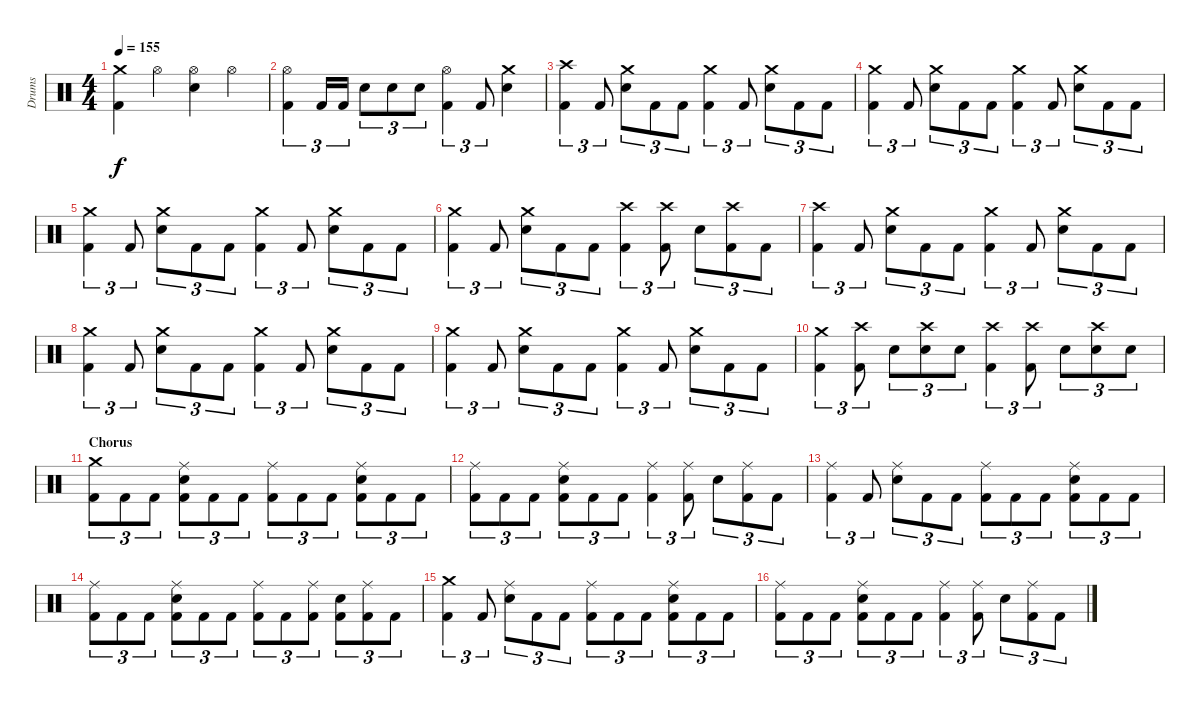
\track ("Drums" "Drums") {instrument percussion}
\staff {score}
\articulation defaults
\ts (4 4)
\tempo 155
\clef neutral
\ks c
("Kick (hit) 2" "Crash medium (hit)").4{dy f} "Hi-Hat (open)".4 ("Electric Snare (hit)" "Hi-Hat (open)").4 "Hi-Hat (open)".4 |
("Kick (hit) 2" "Hi-Hat (open)").4{tu (3 2)} "Kick (hit) 2".16{tu (3 2)} "Kick (hit) 2".16{tu (3 2)} "Electric Snare (hit)".8{tu (3 2)} "Electric Snare (hit)".8{tu (3 2)} "Electric Snare (hit)".8{tu (3 2)} ("Kick (hit) 2" "Hi-Hat (open)").4{tu (3 2)} "Kick (hit) 2".8{tu (3 2)} ("Electric Snare (hit)" "Crash medium (hit)").4 |
("Kick (hit) 2" "Crash high (hit)").4{tu (3 2)} "Kick (hit) 2".8{tu (3 2)} ("Electric Snare (hit)" "Crash medium (hit)").8{tu (3 2)} "Kick (hit) 2".8{tu (3 2)} "Kick (hit) 2".8{tu (3 2)} ("Kick (hit) 2" "Crash medium (hit)").4{tu (3 2)} "Kick (hit) 2".8{tu (3 2)} ("Electric Snare (hit)" "Crash medium (hit)").8{tu (3 2)} "Kick (hit) 2".8{tu (3 2)} "Kick (hit) 2".8{tu (3 2)} |
("Kick (hit) 2" "Crash medium (hit)").4{tu (3 2)} "Kick (hit) 2".8{tu (3 2)} ("Electric Snare (hit)" "Crash medium (hit)").8{tu (3 2)} "Kick (hit) 2".8{tu (3 2)} "Kick (hit) 2".8{tu (3 2)} ("Kick (hit) 2" "Crash medium (hit)").4{tu (3 2)} "Kick (hit) 2".8{tu (3 2)} ("Electric Snare (hit)" "Crash medium (hit)").8{tu (3 2)} "Kick (hit) 2".8{tu (3 2)} "Kick (hit) 2".8{tu (3 2)} |
("Kick (hit) 2" "Crash medium (hit)").4{tu (3 2)} "Kick (hit) 2".8{tu (3 2)} ("Electric Snare (hit)" "Crash medium (hit)").8{tu (3 2)} "Kick (hit) 2".8{tu (3 2)} "Kick (hit) 2".8{tu (3 2)} ("Kick (hit) 2" "Crash medium (hit)").4{tu (3 2)} "Kick (hit) 2".8{tu (3 2)} ("Electric Snare (hit)" "Crash medium (hit)").8{tu (3 2)} "Kick (hit) 2".8{tu (3 2)} "Kick (hit) 2".8{tu (3 2)} |
("Kick (hit) 2" "Crash medium (hit)").4{tu (3 2)} "Kick (hit) 2".8{tu (3 2)} ("Electric Snare (hit)" "Crash medium (hit)").8{tu (3 2)} "Kick (hit) 2".8{tu (3 2)} "Kick (hit) 2".8{tu (3 2)} ("Kick (hit) 2" "Crash high (hit)").4{tu (3 2)} ("Kick (hit) 2" "Crash high (hit)").8{tu (3 2)} "Electric Snare (hit)".8{tu (3 2)} ("Kick (hit) 2" "Crash high (hit)").8{tu (3 2)} "Kick (hit) 2".8{tu (3 2)} |
("Kick (hit) 2" "Crash high (hit)").4{tu (3 2)} "Kick (hit) 2".8{tu (3 2)} ("Electric Snare (hit)" "Crash medium (hit)").8{tu (3 2)} "Kick (hit) 2".8{tu (3 2)} "Kick (hit) 2".8{tu (3 2)} ("Kick (hit) 2" "Crash medium (hit)").4{tu (3 2)} "Kick (hit) 2".8{tu (3 2)} ("Electric Snare (hit)" "Crash medium (hit)").8{tu (3 2)} "Kick (hit) 2".8{tu (3 2)} "Kick (hit) 2".8{tu (3 2)} |
("Kick (hit) 2" "Crash medium (hit)").4{tu (3 2)} "Kick (hit) 2".8{tu (3 2)} ("Electric Snare (hit)" "Crash medium (hit)").8{tu (3 2)} "Kick (hit) 2".8{tu (3 2)} "Kick (hit) 2".8{tu (3 2)} ("Kick (hit) 2" "Crash medium (hit)").4{tu (3 2)} "Kick (hit) 2".8{tu (3 2)} ("Electric Snare (hit)" "Crash medium (hit)").8{tu (3 2)} "Kick (hit) 2".8{tu (3 2)} "Kick (hit) 2".8{tu (3 2)} |
("Kick (hit) 2" "Crash medium (hit)").4{tu (3 2)} "Kick (hit) 2".8{tu (3 2)} ("Electric Snare (hit)" "Crash medium (hit)").8{tu (3 2)} "Kick (hit) 2".8{tu (3 2)} "Kick (hit) 2".8{tu (3 2)} ("Kick (hit) 2" "Crash medium (hit)").4{tu (3 2)} "Kick (hit) 2".8{tu (3 2)} ("Electric Snare (hit)" "Crash medium (hit)").8{tu (3 2)} "Kick (hit) 2".8{tu (3 2)} "Kick (hit) 2".8{tu (3 2)} |
("Kick (hit) 2" "Crash medium (hit)").4{tu (3 2)} ("Kick (hit) 2" "Crash high (hit)").8{tu (3 2)} "Electric Snare (hit)".8{tu (3 2)} ("Electric Snare (hit)" "Crash high (hit)").8{tu (3 2)} "Electric Snare (hit)".8{tu (3 2)} ("Kick (hit) 2" "Crash high (hit)").4{tu (3 2)} ("Kick (hit) 2" "Crash high (hit)").8{tu (3 2)} "Electric Snare (hit)".8{tu (3 2)} ("Electric Snare (hit)" "Crash high (hit)").8{tu (3 2)} "Electric Snare (hit)".8{tu (3 2)} |
\section ("" "Chorus")
("Kick (hit) 2" "Crash medium (hit)").8{tu (3 2)} "Kick (hit) 2".8{tu (3 2)} "Kick (hit) 2".8{tu (3 2)} ("Kick (hit) 2" "Electric Snare (hit)" "Ride (middle)").8{tu (3 2)} "Kick (hit) 2".8{tu (3 2)} "Kick (hit) 2".8{tu (3 2)} ("Kick (hit) 2" "Ride (middle)").8{tu (3 2)} "Kick (hit) 2".8{tu (3 2)} "Kick (hit) 2".8{tu (3 2)} ("Kick (hit) 2" "Electric Snare (hit)" "Ride (middle)").8{tu (3 2)} "Kick (hit) 2".8{tu (3 2)} "Kick (hit) 2".8{tu (3 2)} |
("Kick (hit) 2" "Ride (middle)").8{tu (3 2)} "Kick (hit) 2".8{tu (3 2)} "Kick (hit) 2".8{tu (3 2)} ("Kick (hit) 2" "Electric Snare (hit)" "Ride (middle)").8{tu (3 2)} "Kick (hit) 2".8{tu (3 2)} "Kick (hit) 2".8{tu (3 2)} ("Kick (hit) 2" "Ride (middle)").4{tu (3 2)} ("Kick (hit) 2" "Ride (middle)").8{tu (3 2)} "Electric Snare (hit)".8{tu (3 2)} ("Kick (hit) 2" "Ride (middle)").8{tu (3 2)} "Kick (hit) 2".8{tu (3 2)} |
("Kick (hit) 2" "Ride (middle)").4{tu (3 2)} "Kick (hit) 2".8{tu (3 2)} ("Electric Snare (hit)" "Ride (middle)").8{tu (3 2)} "Kick (hit) 2".8{tu (3 2)} "Kick (hit) 2".8{tu (3 2)} ("Kick (hit) 2" "Ride (middle)").8{tu (3 2)} "Kick (hit) 2".8{tu (3 2)} "Kick (hit) 2".8{tu (3 2)} ("Kick (hit) 2" "Electric Snare (hit)" "Ride (middle)").8{tu (3 2)} "Kick (hit) 2".8{tu (3 2)} "Kick (hit) 2".8{tu (3 2)} |
("Kick (hit) 2" "Ride (middle)").8{tu (3 2)} "Kick (hit) 2".8{tu (3 2)} "Kick (hit) 2".8{tu (3 2)} ("Kick (hit) 2" "Electric Snare (hit)" "Ride (middle)").8{tu (3 2)} "Kick (hit) 2".8{tu (3 2)} "Kick (hit) 2".8{tu (3 2)} ("Kick (hit) 2" "Ride (middle)").8{tu (3 2)} "Kick (hit) 2".8{tu (3 2)} ("Kick (hit) 2" "Ride (middle)").8{tu (3 2)} ("Kick (hit) 2" "Electric Snare (hit)").8{tu (3 2)} ("Kick (hit) 2" "Ride (middle)").8{tu (3 2)} "Kick (hit) 2".8{tu (3 2)} |
("Kick (hit) 2" "Crash medium (hit)").4{tu (3 2)} "Kick (hit) 2".8{tu (3 2)} ("Electric Snare (hit)" "Ride (middle)").8{tu (3 2)} "Kick (hit) 2".8{tu (3 2)} "Kick (hit) 2".8{tu (3 2)} ("Kick (hit) 2" "Ride (middle)").8{tu (3 2)} "Kick (hit) 2".8{tu (3 2)} "Kick (hit) 2".8{tu (3 2)} ("Kick (hit) 2" "Electric Snare (hit)" "Ride (middle)").8{tu (3 2)} "Kick (hit) 2".8{tu (3 2)} "Kick (hit) 2".8{tu (3 2)} |
("Kick (hit) 2" "Ride (middle)").8{tu (3 2)} "Kick (hit) 2".8{tu (3 2)} "Kick (hit) 2".8{tu (3 2)} ("Kick (hit) 2" "Electric Snare (hit)" "Ride (middle)").8{tu (3 2)} "Kick (hit) 2".8{tu (3 2)} "Kick (hit) 2".8{tu (3 2)} ("Kick (hit) 2" "Ride (middle)").4{tu (3 2)} ("Kick (hit) 2" "Ride (middle)").8{tu (3 2)} "Electric Snare (hit)".8{tu (3 2)} ("Kick (hit) 2" "Ride (middle)").8{tu (3 2)} "Kick (hit) 2".8{tu (3 2)}
